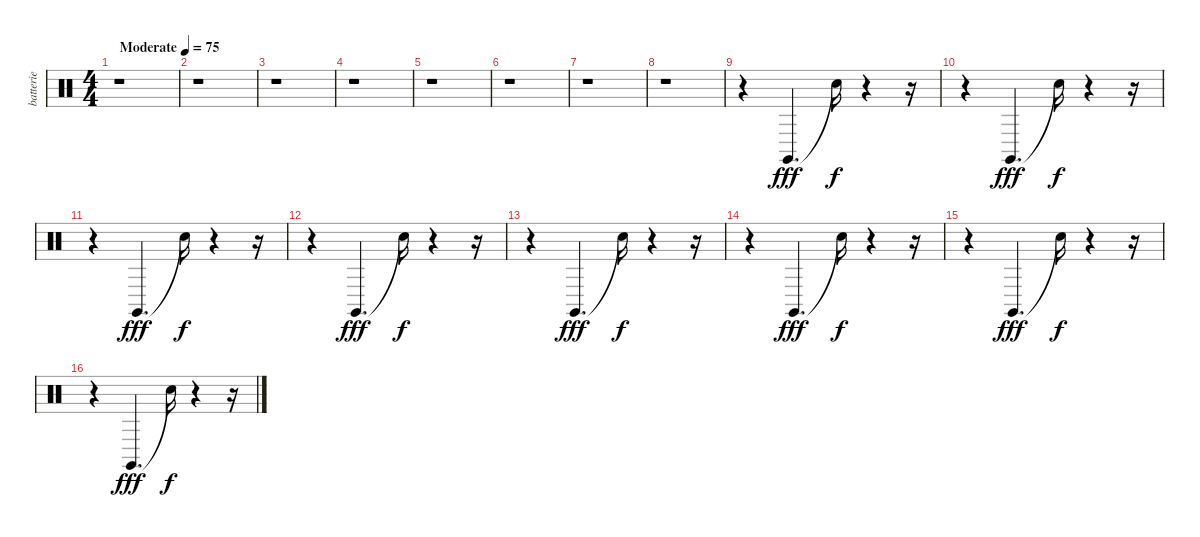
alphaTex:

\track ("batterie" "batterie") {instrument percussion}
\staff {score}
\articulation defaults
\ts (4 4)
\tempo (75 "Moderate")
\clef neutral
\ks c
r.1{dy fff} |
r.1 |
r.1 |
r.1 |
r.1 |
r.1 |
r.1 |
r.1 |
r.4 "Claves (hit)".4{d} "Snare (hit)"{t}.16{dy f} r.4 r.16 |
r.4 "Claves (hit)".4{d dy fff} "Snare (hit)"{t}.16{dy f} r.4 r.16 |
r.4 "Claves (hit)".4{d dy fff} "Snare (hit)"{t}.16{dy f} r.4 r.16 |
r.4 "Claves (hit)".4{d dy fff} "Snare (hit)"{t}.16{dy f} r.4 r.16 |
r.4 "Claves (hit)".4{d dy fff} "Snare (hit)"{t}.16{dy f} r.4 r.16 |
r.4 "Claves (hit)".4{d dy fff} "Snare (hit)"{t}.16{dy f} r.4 r.16 |
r.4 "Claves (hit)".4{d dy fff} "Snare (hit)"{t}.16{dy f} r.4 r.16 |
r.4 "Claves (hit)".4{d dy fff} "Snare (hit)"{t}.16{dy f} r.4 r.16
